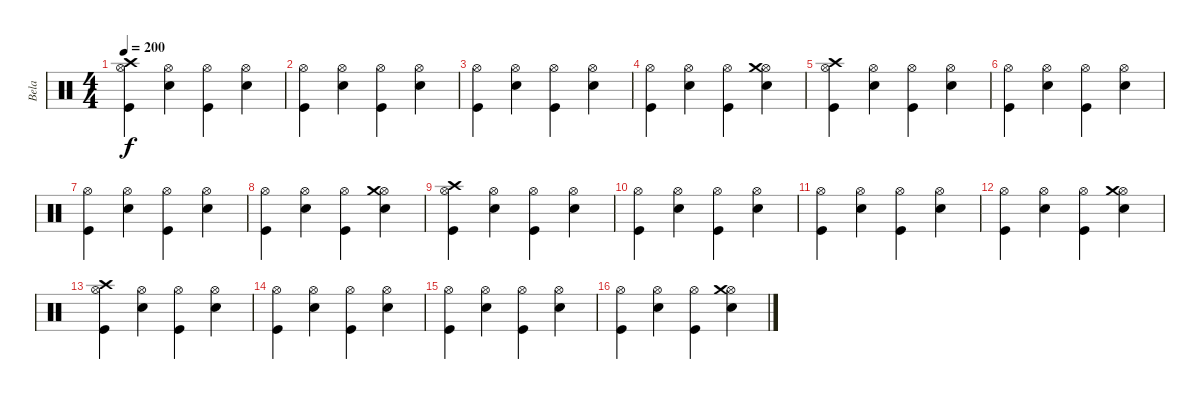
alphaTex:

\track ("Bela" "Bela") {instrument percussion}
\staff {score}
\articulation defaults
\ts (4 4)
\tempo 200
\clef neutral
\ks c
("Hi-Hat (open)" "Crash high (hit)" "Kick (hit)").4{dy f} ("Hi-Hat (open)" "Electric Snare (hit)").4 ("Hi-Hat (open)" "Kick (hit)").4 ("Hi-Hat (open)" "Electric Snare (hit)").4 |
("Hi-Hat (open)" "Kick (hit)").4 ("Hi-Hat (open)" "Electric Snare (hit)").4 ("Hi-Hat (open)" "Kick (hit)").4 ("Hi-Hat (open)" "Electric Snare (hit)").4 |
("Hi-Hat (open)" "Kick (hit)").4 ("Hi-Hat (open)" "Electric Snare (hit)").4 ("Hi-Hat (open)" "Kick (hit)").4 ("Hi-Hat (open)" "Electric Snare (hit)").4 |
("Hi-Hat (open)" "Kick (hit)").4 ("Hi-Hat (open)" "Electric Snare (hit)").4 ("Hi-Hat (open)" "Kick (hit)").4 ("Hi-Hat (open)" "Crash medium (hit)" "Electric Snare (hit)").4 |
("Hi-Hat (open)" "Crash high (hit)" "Kick (hit)").4 ("Hi-Hat (open)" "Electric Snare (hit)").4 ("Hi-Hat (open)" "Kick (hit)").4 ("Hi-Hat (open)" "Electric Snare (hit)").4 |
("Hi-Hat (open)" "Kick (hit)").4 ("Hi-Hat (open)" "Electric Snare (hit)").4 ("Hi-Hat (open)" "Kick (hit)").4 ("Hi-Hat (open)" "Electric Snare (hit)").4 |
("Hi-Hat (open)" "Kick (hit)").4 ("Hi-Hat (open)" "Electric Snare (hit)").4 ("Hi-Hat (open)" "Kick (hit)").4 ("Hi-Hat (open)" "Electric Snare (hit)").4 |
("Hi-Hat (open)" "Kick (hit)").4 ("Hi-Hat (open)" "Electric Snare (hit)").4 ("Hi-Hat (open)" "Kick (hit)").4 ("Hi-Hat (open)" "Crash medium (hit)" "Electric Snare (hit)").4 |
("Hi-Hat (open)" "Crash high (hit)" "Kick (hit)").4 ("Hi-Hat (open)" "Electric Snare (hit)").4 ("Hi-Hat (open)" "Kick (hit)").4 ("Hi-Hat (open)" "Electric Snare (hit)").4 |
("Hi-Hat (open)" "Kick (hit)").4 ("Hi-Hat (open)" "Electric Snare (hit)").4 ("Hi-Hat (open)" "Kick (hit)").4 ("Hi-Hat (open)" "Electric Snare (hit)").4 |
("Hi-Hat (open)" "Kick (hit)").4 ("Hi-Hat (open)" "Electric Snare (hit)").4 ("Hi-Hat (open)" "Kick (hit)").4 ("Hi-Hat (open)" "Electric Snare (hit)").4 |
("Hi-Hat (open)" "Kick (hit)").4 ("Hi-Hat (open)" "Electric Snare (hit)").4 ("Hi-Hat (open)" "Kick (hit)").4 ("Hi-Hat (open)" "Crash medium (hit)" "Electric Snare (hit)").4 |
("Hi-Hat (open)" "Crash high (hit)" "Kick (hit)").4 ("Hi-Hat (open)" "Electric Snare (hit)").4 ("Hi-Hat (open)" "Kick (hit)").4 ("Hi-Hat (open)" "Electric Snare (hit)").4 |
("Hi-Hat (open)" "Kick (hit)").4 ("Hi-Hat (open)" "Electric Snare (hit)").4 ("Hi-Hat (open)" "Kick (hit)").4 ("Hi-Hat (open)" "Electric Snare (hit)").4 |
("Hi-Hat (open)" "Kick (hit)").4 ("Hi-Hat (open)" "Electric Snare (hit)").4 ("Hi-Hat (open)" "Kick (hit)").4 ("Hi-Hat (open)" "Electric Snare (hit)").4 |
("Hi-Hat (open)" "Kick (hit)").4 ("Hi-Hat (open)" "Electric Snare (hit)").4 ("Hi-Hat (open)" "Kick (hit)").4 ("Hi-Hat (open)" "Crash medium (hit)" "Electric Snare (hit)").4
